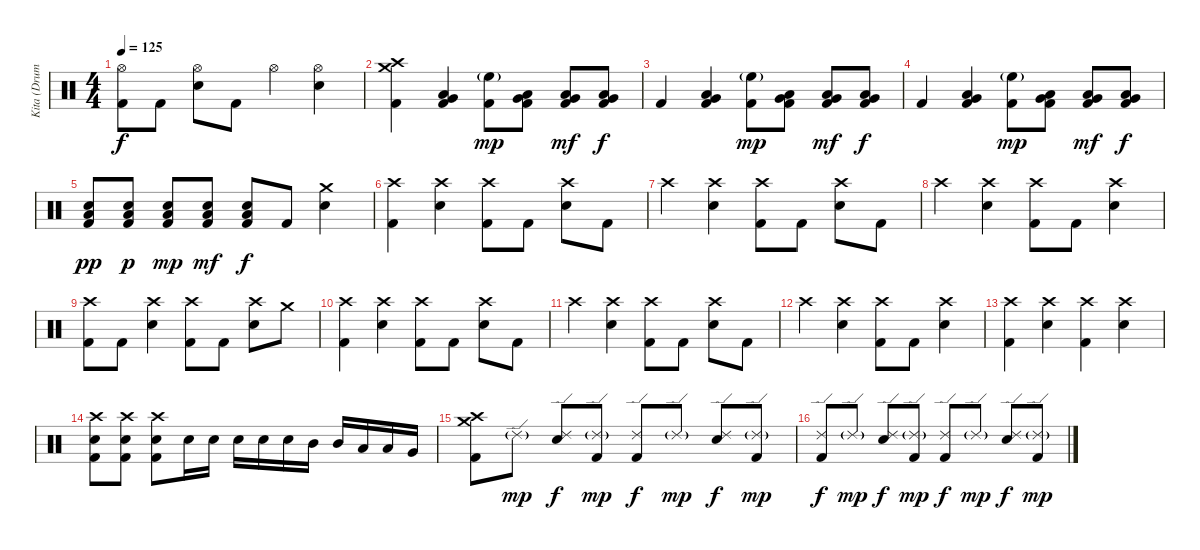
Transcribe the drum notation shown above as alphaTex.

\track ("Kita (Drums)" "Kita (Drum") {instrument percussion}
\staff {score}
\articulation defaults
\ts (4 4)
\tempo 125
\clef neutral
\ks c
("Hi-Hat (open)" "Kick (hit) 2").8{dy f} "Kick (hit) 2".8 ("Hi-Hat (open)" "Electric Snare (hit)").8 "Kick (hit) 2".8 "Hi-Hat (open)".4 ("Hi-Hat (open)" "Electric Snare (hit)").4 |
("Crash medium (hit)" "Crash high (hit)" "Kick (hit) 2").4 ("Very Low Tom (hit)" "Low Tom (hit)" "Kick (hit) 2").4 ("High Floor Tom (hit)"{g} "Kick (hit) 2").8{dy mp} ("Very Low Tom (hit)" "Low Tom (hit)" "Kick (hit) 2").8 ("Very Low Tom (hit)" "Low Tom (hit)" "Kick (hit) 2").8{dy mf} ("Low Floor Tom (hit)" "Very Low Tom (hit)" "Kick (hit) 2").8{dy f} |
"Kick (hit) 2".4 ("Very Low Tom (hit)" "Low Tom (hit)" "Kick (hit) 2").4 ("High Floor Tom (hit)"{g} "Kick (hit) 2").8{dy mp} ("Very Low Tom (hit)" "Low Tom (hit)" "Kick (hit) 2").8 ("Very Low Tom (hit)" "Low Tom (hit)" "Kick (hit) 2").8{dy mf} ("Low Floor Tom (hit)" "Very Low Tom (hit)" "Kick (hit) 2").8{dy f} |
"Kick (hit) 2".4 ("Very Low Tom (hit)" "Low Tom (hit)" "Kick (hit) 2").4 ("High Floor Tom (hit)"{g} "Kick (hit) 2").8{dy mp} ("Very Low Tom (hit)" "Low Tom (hit)" "Kick (hit) 2").8 ("Very Low Tom (hit)" "Low Tom (hit)" "Kick (hit) 2").8{dy mf} ("Low Floor Tom (hit)" "Very Low Tom (hit)" "Kick (hit) 2").8{dy f} |
("Low Floor Tom (hit)" "Electric Snare (hit)" "Kick (hit) 2").8{dy pp} ("Low Floor Tom (hit)" "Electric Snare (hit)" "Kick (hit) 2").8{dy p} ("Low Floor Tom (hit)" "Electric Snare (hit)" "Kick (hit) 2").8{dy mp} ("Low Floor Tom (hit)" "Electric Snare (hit)" "Kick (hit) 2").8{dy mf} ("Low Floor Tom (hit)" "Electric Snare (hit)" "Kick (hit) 2").8{dy f} "Kick (hit) 2".8 ("Crash medium (hit)" "Electric Snare (hit)").4 |
("Crash high (hit)" "Kick (hit) 2").4 ("Crash high (hit)" "Electric Snare (hit)").4 ("Crash high (hit)" "Kick (hit) 2").8 "Kick (hit) 2".8 ("Crash high (hit)" "Electric Snare (hit)").8 "Kick (hit) 2".8 |
"Crash high (hit)".4 ("Crash high (hit)" "Electric Snare (hit)").4 ("Crash high (hit)" "Kick (hit) 2").8 "Kick (hit) 2".8 ("Crash high (hit)" "Electric Snare (hit)").8 "Kick (hit) 2".8 |
"Crash high (hit)".4 ("Crash high (hit)" "Electric Snare (hit)").4 ("Crash high (hit)" "Kick (hit) 2").8 "Kick (hit) 2".8 ("Crash high (hit)" "Electric Snare (hit)").4 |
("Crash high (hit)" "Kick (hit) 2").8 "Kick (hit) 2".8 ("Crash high (hit)" "Electric Snare (hit)").4 ("Crash high (hit)" "Kick (hit) 2").8 "Kick (hit) 2".8 ("Crash high (hit)" "Electric Snare (hit)").8 "Crash medium (hit)".8 |
("Crash high (hit)" "Kick (hit) 2").4 ("Crash high (hit)" "Electric Snare (hit)").4 ("Crash high (hit)" "Kick (hit) 2").8 "Kick (hit) 2".8 ("Crash high (hit)" "Electric Snare (hit)").8 "Kick (hit) 2".8 |
"Crash high (hit)".4 ("Crash high (hit)" "Electric Snare (hit)").4 ("Crash high (hit)" "Kick (hit) 2").8 "Kick (hit) 2".8 ("Crash high (hit)" "Electric Snare (hit)").8 "Kick (hit) 2".8 |
"Crash high (hit)".4 ("Crash high (hit)" "Electric Snare (hit)").4 ("Crash high (hit)" "Kick (hit) 2").8 "Kick (hit) 2".8 ("Crash high (hit)" "Electric Snare (hit)").4 |
("Crash high (hit)" "Kick (hit) 2").4 ("Crash high (hit)" "Electric Snare (hit)").4 ("Crash high (hit)" "Kick (hit) 2").4 ("Crash high (hit)" "Electric Snare (hit)").4 |
("Crash high (hit)" "Electric Snare (hit)" "Kick (hit) 2").8 ("Crash high (hit)" "Electric Snare (hit)" "Kick (hit) 2").8 ("Crash high (hit)" "Electric Snare (hit)" "Kick (hit) 2").8 "Electric Snare (hit)".16 "Electric Snare (hit)".16 "Electric Snare (hit)".16 "Electric Snare (hit)".16 "Electric Snare (hit)".16 "Mid Tom (hit)".16 "Mid Tom (hit)".16 "Low Tom (hit)".16 "Low Tom (hit)".16 "Very Low Tom (hit)".16 |
("Crash medium (hit)" "Crash high (hit)" "Kick (hit) 2").8 "Ride (edge) 2"{g}.8{dy mp} ("Ride (edge) 2" "Electric Snare (hit)").8{dy f} ("Ride (edge) 2"{g} "Kick (hit) 2").8{dy mp} ("Ride (edge) 2" "Kick (hit) 2").8{dy f} "Ride (edge) 2"{g}.8{dy mp} ("Ride (edge) 2" "Electric Snare (hit)").8{dy f} ("Ride (edge) 2"{g} "Kick (hit) 2").8{dy mp} |
("Ride (edge) 2" "Kick (hit) 2").8{dy f} "Ride (edge) 2"{g}.8{dy mp} ("Ride (edge) 2" "Electric Snare (hit)").8{dy f} ("Ride (edge) 2"{g} "Kick (hit) 2").8{dy mp} ("Ride (edge) 2" "Kick (hit) 2").8{dy f} "Ride (edge) 2"{g}.8{dy mp} ("Ride (edge) 2" "Electric Snare (hit)").8{dy f} ("Ride (edge) 2"{g} "Kick (hit) 2").8{dy mp}
